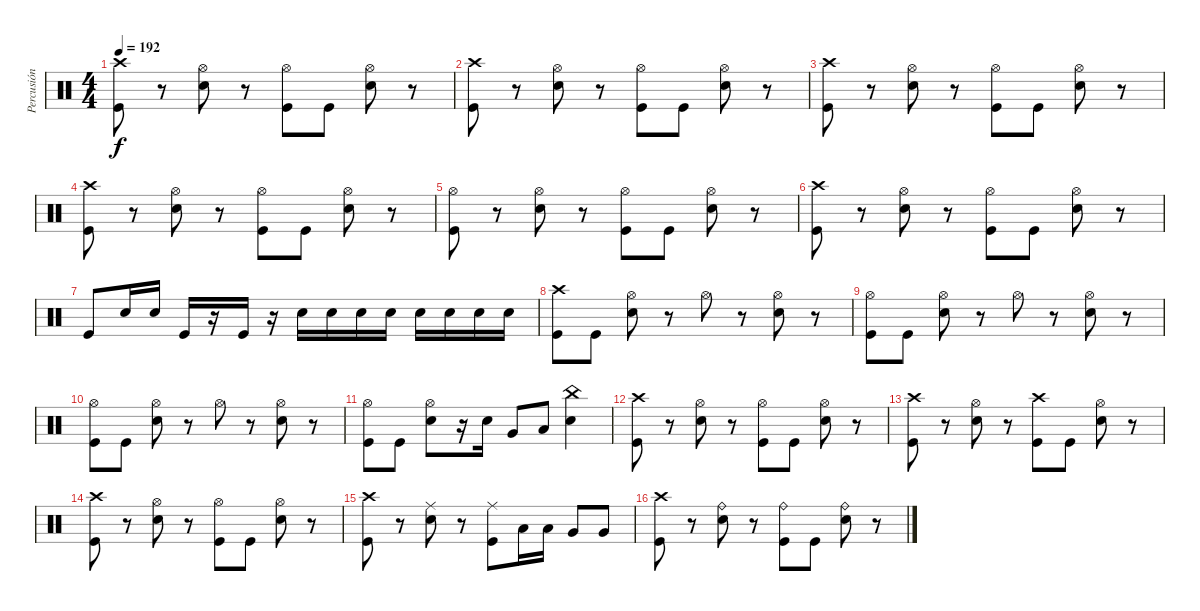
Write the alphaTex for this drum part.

\track ("Percusión" "Percusión") {instrument percussion}
\staff {score}
\articulation defaults
\ts (4 4)
\tempo 192
\clef neutral
\ks c
("Kick (hit)" "Crash high (hit)").8{dy f} r.8 ("Electric Snare (hit)" "Hi-Hat (open)").8 r.8 ("Kick (hit)" "Hi-Hat (open)").8 "Kick (hit)".8 ("Electric Snare (hit)" "Hi-Hat (open)").8 r.8 |
("Kick (hit)" "Crash high (hit)").8 r.8 ("Electric Snare (hit)" "Hi-Hat (open)").8 r.8 ("Kick (hit)" "Hi-Hat (open)").8 "Kick (hit)".8 ("Electric Snare (hit)" "Hi-Hat (open)").8 r.8 |
("Kick (hit)" "Crash high (hit)").8 r.8 ("Electric Snare (hit)" "Hi-Hat (open)").8 r.8 ("Kick (hit)" "Hi-Hat (open)").8 "Kick (hit)".8 ("Electric Snare (hit)" "Hi-Hat (open)").8 r.8 |
("Kick (hit)" "Crash high (hit)").8 r.8 ("Electric Snare (hit)" "Hi-Hat (open)").8 r.8 ("Kick (hit)" "Hi-Hat (open)").8 "Kick (hit)".8 ("Electric Snare (hit)" "Hi-Hat (open)").8 r.8 |
("Kick (hit)" "Hi-Hat (open)").8 r.8 ("Electric Snare (hit)" "Hi-Hat (open)").8 r.8 ("Kick (hit)" "Hi-Hat (open)").8 "Kick (hit)".8 ("Electric Snare (hit)" "Hi-Hat (open)").8 r.8 |
("Kick (hit)" "Crash high (hit)").8 r.8 ("Electric Snare (hit)" "Hi-Hat (open)").8 r.8 ("Kick (hit)" "Hi-Hat (open)").8 "Kick (hit)".8 ("Electric Snare (hit)" "Hi-Hat (open)").8 r.8 |
"Kick (hit)".8 "Electric Snare (hit)".16 "Electric Snare (hit)".16 "Kick (hit)".16 r.16 "Kick (hit)".16 r.16 "Electric Snare (hit)".16 "Electric Snare (hit)".16 "Electric Snare (hit)".16 "Electric Snare (hit)".16 "Electric Snare (hit)".16 "Electric Snare (hit)".16 "Electric Snare (hit)".16 "Electric Snare (hit)".16 |
("Kick (hit)" "Crash high (hit)").8 "Kick (hit)".8 ("Electric Snare (hit)" "Hi-Hat (open)").8 r.8 "Hi-Hat (open)".8 r.8 ("Electric Snare (hit)" "Hi-Hat (open)").8 r.8 |
("Kick (hit)" "Hi-Hat (open)").8 "Kick (hit)".8 ("Electric Snare (hit)" "Hi-Hat (open)").8 r.8 "Hi-Hat (open)".8 r.8 ("Electric Snare (hit)" "Hi-Hat (open)").8 r.8 |
("Kick (hit)" "Hi-Hat (open)").8 "Kick (hit)".8 ("Electric Snare (hit)" "Hi-Hat (open)").8 r.8 "Hi-Hat (open)".8 r.8 ("Electric Snare (hit)" "Hi-Hat (open)").8 r.8 |
("Kick (hit)" "Hi-Hat (open)").8 "Kick (hit)".8 ("Electric Snare (hit)" "Hi-Hat (open)").8 r.16 "Electric Snare (hit)".16 "Very Low Tom (hit)".8 "Low Floor Tom (hit)".8 ("Electric Snare (hit)" "China (hit)").4 |
("Kick (hit)" "Crash high (hit)").8 r.8 ("Electric Snare (hit)" "Hi-Hat (open)").8 r.8 ("Kick (hit)" "Hi-Hat (open)").8 "Kick (hit)".8 ("Electric Snare (hit)" "Hi-Hat (open)").8 r.8 |
("Kick (hit)" "Crash high (hit)").8 r.8 ("Electric Snare (hit)" "Hi-Hat (open)").8 r.8 ("Kick (hit)" "Crash high (hit)").8 "Kick (hit)".8 ("Electric Snare (hit)" "Hi-Hat (open)").8 r.8 |
("Kick (hit)" "Crash high (hit)").8 r.8 ("Electric Snare (hit)" "Hi-Hat (open)").8 r.8 ("Kick (hit)" "Hi-Hat (open)").8 "Kick (hit)".8 ("Electric Snare (hit)" "Hi-Hat (open)").8 r.8 |
("Kick (hit)" "Crash high (hit)").8 r.8 ("Electric Snare (hit)" "Ride (middle)").8 r.8 ("Kick (hit)" "Ride (middle)").8 "Low Tom (hit)".16 "Low Tom (hit)".16 "Very Low Tom (hit)".8 "Very Low Tom (hit)".8 |
("Kick (hit)" "Crash high (hit)").8 r.8 ("Electric Snare (hit)" "Ride (bell)").8 r.8 ("Kick (hit)" "Ride (bell)").8 "Kick (hit)".8 ("Electric Snare (hit)" "Ride (bell)").8 r.8
